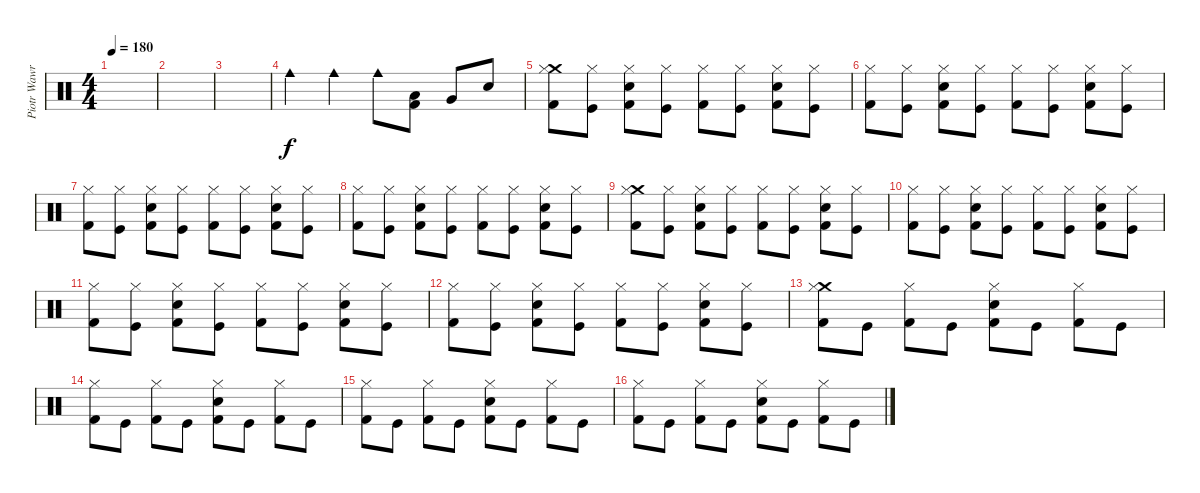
\track ("Piotr Wawrzeniuk" "Piotr Wawr") {instrument percussion}
\staff {score}
\articulation defaults
\ts (4 4)
\tempo 180
\clef neutral
\ks c
|
|
|
"Cowbell medium (hit)".4 "Cowbell medium (hit)".4 "Cowbell medium (hit)".8 ("Low Tom (hit)" "Kick (hit) 2").8 "Very Low Tom (hit)".8 "Snare (hit) 2".8 |
("Crash medium (hit)" "Hi-Hat (closed)" "Kick (hit) 2").8 ("Hi-Hat (closed)" "Kick (hit)").8 ("Snare (hit) 2" "Hi-Hat (closed)" "Kick (hit) 2").8 ("Hi-Hat (closed)" "Kick (hit)").8 ("Hi-Hat (closed)" "Kick (hit) 2").8 ("Hi-Hat (closed)" "Kick (hit)").8 ("Snare (hit) 2" "Hi-Hat (closed)" "Kick (hit) 2").8 ("Hi-Hat (closed)" "Kick (hit)").8 |
("Hi-Hat (closed)" "Kick (hit) 2").8 ("Hi-Hat (closed)" "Kick (hit)").8 ("Snare (hit) 2" "Hi-Hat (closed)" "Kick (hit) 2").8 ("Hi-Hat (closed)" "Kick (hit)").8 ("Hi-Hat (closed)" "Kick (hit) 2").8 ("Hi-Hat (closed)" "Kick (hit)").8 ("Snare (hit) 2" "Hi-Hat (closed)" "Kick (hit) 2").8 ("Hi-Hat (closed)" "Kick (hit)").8 |
("Hi-Hat (closed)" "Kick (hit) 2").8 ("Hi-Hat (closed)" "Kick (hit)").8 ("Snare (hit) 2" "Hi-Hat (closed)" "Kick (hit) 2").8 ("Hi-Hat (closed)" "Kick (hit)").8 ("Hi-Hat (closed)" "Kick (hit) 2").8 ("Hi-Hat (closed)" "Kick (hit)").8 ("Snare (hit) 2" "Hi-Hat (closed)" "Kick (hit) 2").8 ("Hi-Hat (closed)" "Kick (hit)").8 |
("Hi-Hat (closed)" "Kick (hit) 2").8 ("Hi-Hat (closed)" "Kick (hit)").8 ("Snare (hit) 2" "Hi-Hat (closed)" "Kick (hit) 2").8 ("Hi-Hat (closed)" "Kick (hit)").8 ("Hi-Hat (closed)" "Kick (hit) 2").8 ("Hi-Hat (closed)" "Kick (hit)").8 ("Snare (hit) 2" "Hi-Hat (closed)" "Kick (hit) 2").8 ("Hi-Hat (closed)" "Kick (hit)").8 |
("Crash medium (hit)" "Hi-Hat (closed)" "Kick (hit) 2").8 ("Hi-Hat (closed)" "Kick (hit)").8 ("Snare (hit) 2" "Hi-Hat (closed)" "Kick (hit) 2").8 ("Hi-Hat (closed)" "Kick (hit)").8 ("Hi-Hat (closed)" "Kick (hit) 2").8 ("Hi-Hat (closed)" "Kick (hit)").8 ("Snare (hit) 2" "Hi-Hat (closed)" "Kick (hit) 2").8 ("Hi-Hat (closed)" "Kick (hit)").8 |
("Hi-Hat (closed)" "Kick (hit) 2").8 ("Hi-Hat (closed)" "Kick (hit)").8 ("Snare (hit) 2" "Hi-Hat (closed)" "Kick (hit) 2").8 ("Hi-Hat (closed)" "Kick (hit)").8 ("Hi-Hat (closed)" "Kick (hit) 2").8 ("Hi-Hat (closed)" "Kick (hit)").8 ("Snare (hit) 2" "Hi-Hat (closed)" "Kick (hit) 2").8 ("Hi-Hat (closed)" "Kick (hit)").8 |
("Hi-Hat (closed)" "Kick (hit) 2").8 ("Hi-Hat (closed)" "Kick (hit)").8 ("Snare (hit) 2" "Hi-Hat (closed)" "Kick (hit) 2").8 ("Hi-Hat (closed)" "Kick (hit)").8 ("Hi-Hat (closed)" "Kick (hit) 2").8 ("Hi-Hat (closed)" "Kick (hit)").8 ("Snare (hit) 2" "Hi-Hat (closed)" "Kick (hit) 2").8 ("Hi-Hat (closed)" "Kick (hit)").8 |
("Hi-Hat (closed)" "Kick (hit) 2").8 ("Hi-Hat (closed)" "Kick (hit)").8 ("Snare (hit) 2" "Hi-Hat (closed)" "Kick (hit) 2").8 ("Hi-Hat (closed)" "Kick (hit)").8 ("Hi-Hat (closed)" "Kick (hit) 2").8 ("Hi-Hat (closed)" "Kick (hit)").8 ("Snare (hit) 2" "Hi-Hat (closed)" "Kick (hit) 2").8 ("Hi-Hat (closed)" "Kick (hit)").8 |
("Crash medium (hit)" "Hi-Hat (closed)" "Kick (hit) 2").8 "Kick (hit)".8 ("Hi-Hat (closed)" "Kick (hit) 2").8 "Kick (hit)".8 ("Snare (hit) 2" "Hi-Hat (closed)" "Kick (hit) 2").8 "Kick (hit)".8 ("Hi-Hat (closed)" "Kick (hit) 2").8 "Kick (hit)".8 |
("Hi-Hat (closed)" "Kick (hit) 2").8 "Kick (hit)".8 ("Hi-Hat (closed)" "Kick (hit) 2").8 "Kick (hit)".8 ("Snare (hit) 2" "Hi-Hat (closed)" "Kick (hit) 2").8 "Kick (hit)".8 ("Hi-Hat (closed)" "Kick (hit) 2").8 "Kick (hit)".8 |
("Hi-Hat (closed)" "Kick (hit) 2").8 "Kick (hit)".8 ("Hi-Hat (closed)" "Kick (hit) 2").8 "Kick (hit)".8 ("Snare (hit) 2" "Hi-Hat (closed)" "Kick (hit) 2").8 "Kick (hit)".8 ("Hi-Hat (closed)" "Kick (hit) 2").8 "Kick (hit)".8 |
("Hi-Hat (closed)" "Kick (hit) 2").8 "Kick (hit)".8 ("Hi-Hat (closed)" "Kick (hit) 2").8 "Kick (hit)".8 ("Snare (hit) 2" "Hi-Hat (closed)" "Kick (hit) 2").8 "Kick (hit)".8 ("Hi-Hat (closed)" "Kick (hit) 2").8 "Kick (hit)".8
